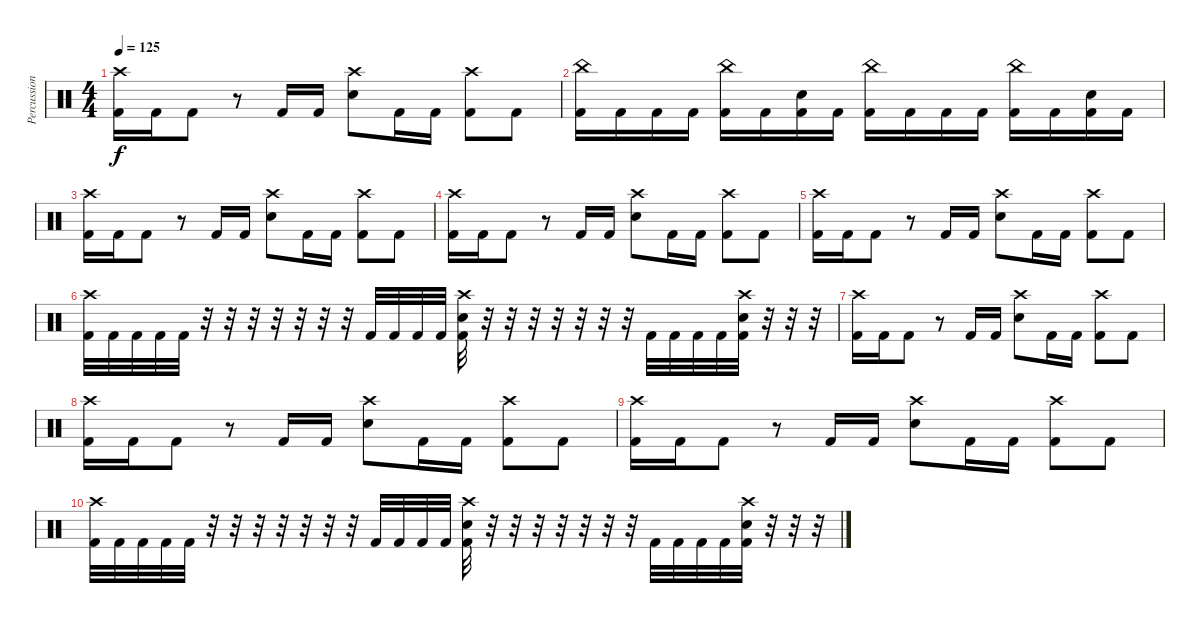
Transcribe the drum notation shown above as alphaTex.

\track ("Percussion" "Percussion") {instrument percussion}
\staff {score}
\articulation defaults
\ts (4 4)
\tempo 125
\clef neutral
\ks c
("Crash high (hit)" "Kick (hit) 2").16{dy f} "Kick (hit) 2".16 "Kick (hit) 2".8 r.8 "Kick (hit) 2".16 "Kick (hit) 2".16 ("Crash high (hit)" "Snare (hit) 2").8 "Kick (hit) 2".16 "Kick (hit) 2".16 ("Crash high (hit)" "Kick (hit) 2").8 "Kick (hit) 2".8 |
("China (hit)" "Kick (hit) 2").16 "Kick (hit) 2".16 "Kick (hit) 2".16 "Kick (hit) 2".16 ("China (hit)" "Kick (hit) 2").16 "Kick (hit) 2".16 ("Snare (hit) 2" "Kick (hit) 2").16 "Kick (hit) 2".16 ("China (hit)" "Kick (hit) 2").16 "Kick (hit) 2".16 "Kick (hit) 2".16 "Kick (hit) 2".16 ("China (hit)" "Kick (hit) 2").16 "Kick (hit) 2".16 ("Snare (hit) 2" "Kick (hit) 2").16 "Kick (hit) 2".16 |
("Crash high (hit)" "Kick (hit) 2").16 "Kick (hit) 2".16 "Kick (hit) 2".8 r.8 "Kick (hit) 2".16 "Kick (hit) 2".16 ("Crash high (hit)" "Snare (hit) 2").8 "Kick (hit) 2".16 "Kick (hit) 2".16 ("Crash high (hit)" "Kick (hit) 2").8 "Kick (hit) 2".8 |
("Crash high (hit)" "Kick (hit) 2").16 "Kick (hit) 2".16 "Kick (hit) 2".8 r.8 "Kick (hit) 2".16 "Kick (hit) 2".16 ("Crash high (hit)" "Snare (hit) 2").8 "Kick (hit) 2".16 "Kick (hit) 2".16 ("Crash high (hit)" "Kick (hit) 2").8 "Kick (hit) 2".8 |
("Crash high (hit)" "Kick (hit) 2").16 "Kick (hit) 2".16 "Kick (hit) 2".8 r.8 "Kick (hit) 2".16 "Kick (hit) 2".16 ("Crash high (hit)" "Snare (hit) 2").8 "Kick (hit) 2".16 "Kick (hit) 2".16 ("Crash high (hit)" "Kick (hit) 2").8 "Kick (hit) 2".8 |
("Crash high (hit)" "Kick (hit) 2").32 "Kick (hit) 2".32 "Kick (hit) 2".32 "Kick (hit) 2".32 "Kick (hit) 2".32 r.32 r.32 r.32 r.32 r.32 r.32 r.32 "Kick (hit) 2".32 "Kick (hit) 2".32 "Kick (hit) 2".32 "Kick (hit) 2".32 ("Crash high (hit)" "Snare (hit) 2" "Kick (hit) 2").32 r.32 r.32 r.32 r.32 r.32 r.32 r.32 "Kick (hit) 2".32 "Kick (hit) 2".32 "Kick (hit) 2".32 "Kick (hit) 2".32 ("Crash high (hit)" "Snare (hit) 2" "Kick (hit) 2").32 r.32 r.32 r.32 |
("Crash high (hit)" "Kick (hit) 2").16 "Kick (hit) 2".16 "Kick (hit) 2".8 r.8 "Kick (hit) 2".16 "Kick (hit) 2".16 ("Crash high (hit)" "Snare (hit) 2").8 "Kick (hit) 2".16 "Kick (hit) 2".16 ("Crash high (hit)" "Kick (hit) 2").8 "Kick (hit) 2".8 |
("Crash high (hit)" "Kick (hit) 2").16 "Kick (hit) 2".16 "Kick (hit) 2".8 r.8 "Kick (hit) 2".16 "Kick (hit) 2".16 ("Crash high (hit)" "Snare (hit) 2").8 "Kick (hit) 2".16 "Kick (hit) 2".16 ("Crash high (hit)" "Kick (hit) 2").8 "Kick (hit) 2".8 |
("Crash high (hit)" "Kick (hit) 2").16 "Kick (hit) 2".16 "Kick (hit) 2".8 r.8 "Kick (hit) 2".16 "Kick (hit) 2".16 ("Crash high (hit)" "Snare (hit) 2").8 "Kick (hit) 2".16 "Kick (hit) 2".16 ("Crash high (hit)" "Kick (hit) 2").8 "Kick (hit) 2".8 |
("Crash high (hit)" "Kick (hit) 2").32 "Kick (hit) 2".32 "Kick (hit) 2".32 "Kick (hit) 2".32 "Kick (hit) 2".32 r.32 r.32 r.32 r.32 r.32 r.32 r.32 "Kick (hit) 2".32 "Kick (hit) 2".32 "Kick (hit) 2".32 "Kick (hit) 2".32 ("Crash high (hit)" "Snare (hit) 2" "Kick (hit) 2").32 r.32 r.32 r.32 r.32 r.32 r.32 r.32 "Kick (hit) 2".32 "Kick (hit) 2".32 "Kick (hit) 2".32 "Kick (hit) 2".32 ("Crash high (hit)" "Snare (hit) 2" "Kick (hit) 2").32 r.32 r.32 r.32
